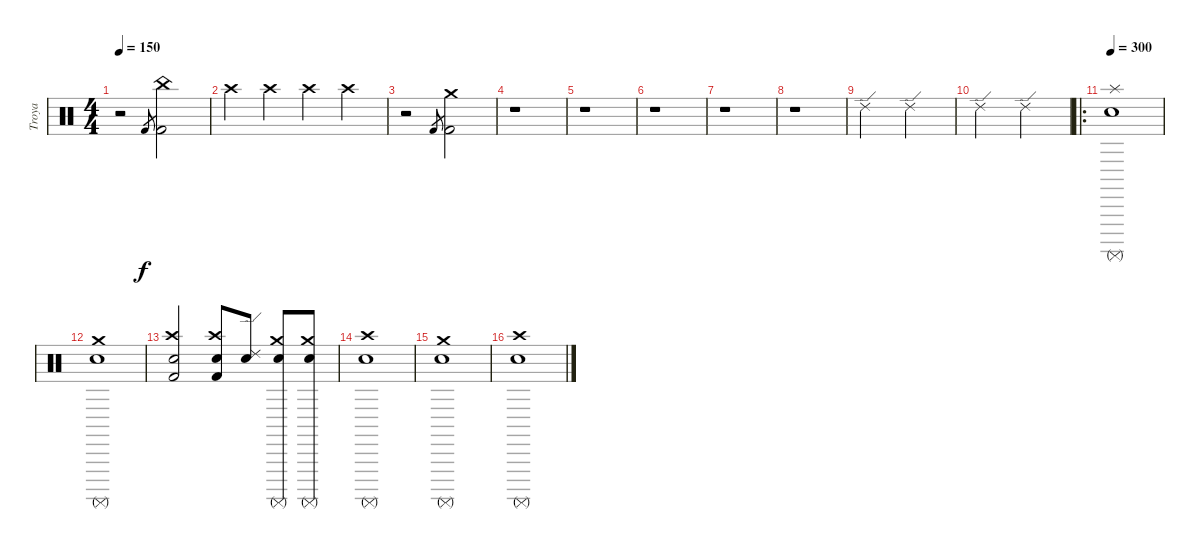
\track ("Troya" "Troya") {instrument percussion}
\staff {score}
\articulation defaults
\ts (4 4)
\tempo 150
\clef neutral
\ks c
r.2{dy f} "Kick (hit) 2".8{gr} ("Kick (hit) 2" "China (hit)").2 |
"Crash high (hit)".4 "Crash high (hit)".4 "Crash high (hit)".4 "Crash high (hit)".4 |
r.2 "Kick (hit) 2".8{gr} ("Crash medium (hit)" "Kick (hit) 2").2 |
r.1 |
r.1 |
r.1 |
r.1 |
r.1 |
"Ride (edge) 2".2 "Ride (edge) 2".2 |
"Ride (edge) 2".2 "Ride (edge) 2".2 |
\ro
\tempo 300
("Splash (hit)" "Electric Snare (hit)" "Surdo (mute)").1 |
("Crash medium (hit)" "Electric Snare (hit)" "Surdo (mute)").1 |
("Crash high (hit)" "Kick (hit) 2" "Snare (hit) 2").2 ("Crash high (hit)" "Kick (hit) 2" "Snare (hit) 2").8 ("Ride (edge) 2" "Snare (hit) 2").8 ("Crash medium (hit)" "Surdo (mute)" "Electric Snare (hit)").8 ("Crash medium (hit)" "Surdo (mute)" "Electric Snare (hit)").8 |
("Crash high (hit)" "Electric Snare (hit)" "Surdo (mute)").1 |
("Crash medium (hit)" "Surdo (mute)" "Electric Snare (hit)").1 |
("Crash high (hit)" "Electric Snare (hit)" "Surdo (mute)").1
